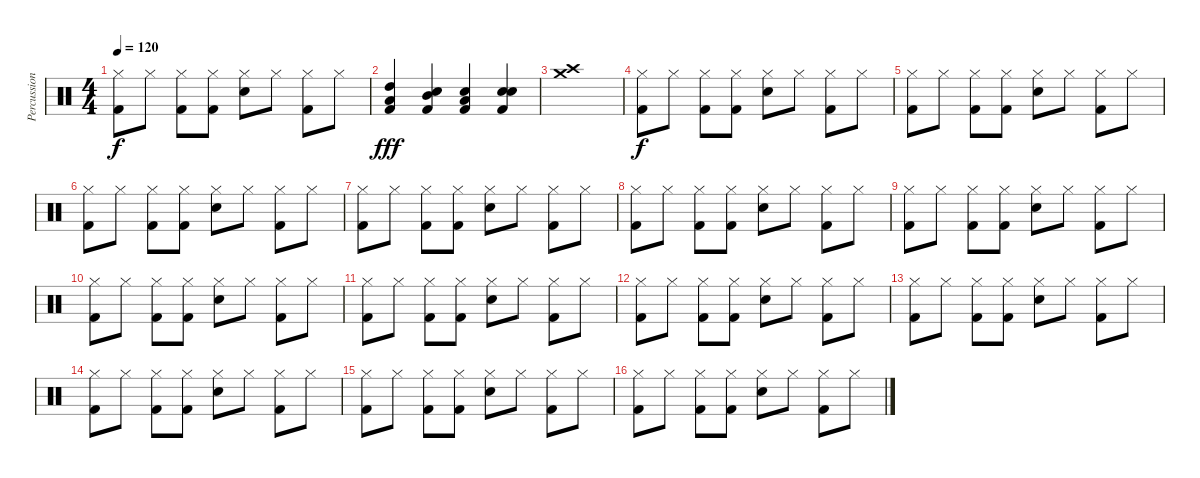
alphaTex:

\track ("Percussions" "Percussion") {instrument percussion}
\staff {score}
\articulation defaults
\ts (4 4)
\tempo 120
\clef neutral
\ks c
("Hi-Hat (closed)" "Kick (hit) 2").8{dy f} "Hi-Hat (closed)".8 ("Hi-Hat (closed)" "Kick (hit) 2").8 ("Hi-Hat (closed)" "Kick (hit) 2").8 ("Hi-Hat (closed)" "Snare (hit) 2").8 "Hi-Hat (closed)".8 ("Hi-Hat (closed)" "Kick (hit) 2").8 "Hi-Hat (closed)".8 |
("High Tom (hit)" "Low Tom (hit)" "Kick (hit) 2").4{dy fff} ("Mid Tom (hit)" "Snare (hit) 2" "Kick (hit) 2").4 ("Snare (hit) 2" "Low Tom (hit)" "Kick (hit) 2").4 ("Snare (hit) 2" "Snare (hit) 2" "Kick (hit) 2").4 |
("Crash high (hit)" "Crash medium (hit)").1 |
("Hi-Hat (closed)" "Kick (hit) 2").8{dy f} "Hi-Hat (closed)".8 ("Hi-Hat (closed)" "Kick (hit) 2").8 ("Hi-Hat (closed)" "Kick (hit) 2").8 ("Hi-Hat (closed)" "Snare (hit) 2").8 "Hi-Hat (closed)".8 ("Hi-Hat (closed)" "Kick (hit) 2").8 "Hi-Hat (closed)".8 |
("Hi-Hat (closed)" "Kick (hit) 2").8 "Hi-Hat (closed)".8 ("Hi-Hat (closed)" "Kick (hit) 2").8 ("Hi-Hat (closed)" "Kick (hit) 2").8 ("Hi-Hat (closed)" "Snare (hit) 2").8 "Hi-Hat (closed)".8 ("Hi-Hat (closed)" "Kick (hit) 2").8 "Hi-Hat (closed)".8 |
("Hi-Hat (closed)" "Kick (hit) 2").8 "Hi-Hat (closed)".8 ("Hi-Hat (closed)" "Kick (hit) 2").8 ("Hi-Hat (closed)" "Kick (hit) 2").8 ("Hi-Hat (closed)" "Snare (hit) 2").8 "Hi-Hat (closed)".8 ("Hi-Hat (closed)" "Kick (hit) 2").8 "Hi-Hat (closed)".8 |
("Hi-Hat (closed)" "Kick (hit) 2").8 "Hi-Hat (closed)".8 ("Hi-Hat (closed)" "Kick (hit) 2").8 ("Hi-Hat (closed)" "Kick (hit) 2").8 ("Hi-Hat (closed)" "Snare (hit) 2").8 "Hi-Hat (closed)".8 ("Hi-Hat (closed)" "Kick (hit) 2").8 "Hi-Hat (closed)".8 |
("Hi-Hat (closed)" "Kick (hit) 2").8 "Hi-Hat (closed)".8 ("Hi-Hat (closed)" "Kick (hit) 2").8 ("Hi-Hat (closed)" "Kick (hit) 2").8 ("Hi-Hat (closed)" "Snare (hit) 2").8 "Hi-Hat (closed)".8 ("Hi-Hat (closed)" "Kick (hit) 2").8 "Hi-Hat (closed)".8 |
("Hi-Hat (closed)" "Kick (hit) 2").8 "Hi-Hat (closed)".8 ("Hi-Hat (closed)" "Kick (hit) 2").8 ("Hi-Hat (closed)" "Kick (hit) 2").8 ("Hi-Hat (closed)" "Snare (hit) 2").8 "Hi-Hat (closed)".8 ("Hi-Hat (closed)" "Kick (hit) 2").8 "Hi-Hat (closed)".8 |
("Hi-Hat (closed)" "Kick (hit) 2").8 "Hi-Hat (closed)".8 ("Hi-Hat (closed)" "Kick (hit) 2").8 ("Hi-Hat (closed)" "Kick (hit) 2").8 ("Hi-Hat (closed)" "Snare (hit) 2").8 "Hi-Hat (closed)".8 ("Hi-Hat (closed)" "Kick (hit) 2").8 "Hi-Hat (closed)".8 |
("Hi-Hat (closed)" "Kick (hit) 2").8 "Hi-Hat (closed)".8 ("Hi-Hat (closed)" "Kick (hit) 2").8 ("Hi-Hat (closed)" "Kick (hit) 2").8 ("Hi-Hat (closed)" "Snare (hit) 2").8 "Hi-Hat (closed)".8 ("Hi-Hat (closed)" "Kick (hit) 2").8 "Hi-Hat (closed)".8 |
("Hi-Hat (closed)" "Kick (hit) 2").8 "Hi-Hat (closed)".8 ("Hi-Hat (closed)" "Kick (hit) 2").8 ("Hi-Hat (closed)" "Kick (hit) 2").8 ("Hi-Hat (closed)" "Snare (hit) 2").8 "Hi-Hat (closed)".8 ("Hi-Hat (closed)" "Kick (hit) 2").8 "Hi-Hat (closed)".8 |
("Hi-Hat (closed)" "Kick (hit) 2").8 "Hi-Hat (closed)".8 ("Hi-Hat (closed)" "Kick (hit) 2").8 ("Hi-Hat (closed)" "Kick (hit) 2").8 ("Hi-Hat (closed)" "Snare (hit) 2").8 "Hi-Hat (closed)".8 ("Hi-Hat (closed)" "Kick (hit) 2").8 "Hi-Hat (closed)".8 |
("Hi-Hat (closed)" "Kick (hit) 2").8 "Hi-Hat (closed)".8 ("Hi-Hat (closed)" "Kick (hit) 2").8 ("Hi-Hat (closed)" "Kick (hit) 2").8 ("Hi-Hat (closed)" "Snare (hit) 2").8 "Hi-Hat (closed)".8 ("Hi-Hat (closed)" "Kick (hit) 2").8 "Hi-Hat (closed)".8 |
("Hi-Hat (closed)" "Kick (hit) 2").8 "Hi-Hat (closed)".8 ("Hi-Hat (closed)" "Kick (hit) 2").8 ("Hi-Hat (closed)" "Kick (hit) 2").8 ("Hi-Hat (closed)" "Snare (hit) 2").8 "Hi-Hat (closed)".8 ("Hi-Hat (closed)" "Kick (hit) 2").8 "Hi-Hat (closed)".8 |
("Hi-Hat (closed)" "Kick (hit) 2").8 "Hi-Hat (closed)".8 ("Hi-Hat (closed)" "Kick (hit) 2").8 ("Hi-Hat (closed)" "Kick (hit) 2").8 ("Hi-Hat (closed)" "Snare (hit) 2").8 "Hi-Hat (closed)".8 ("Hi-Hat (closed)" "Kick (hit) 2").8 "Hi-Hat (closed)".8
